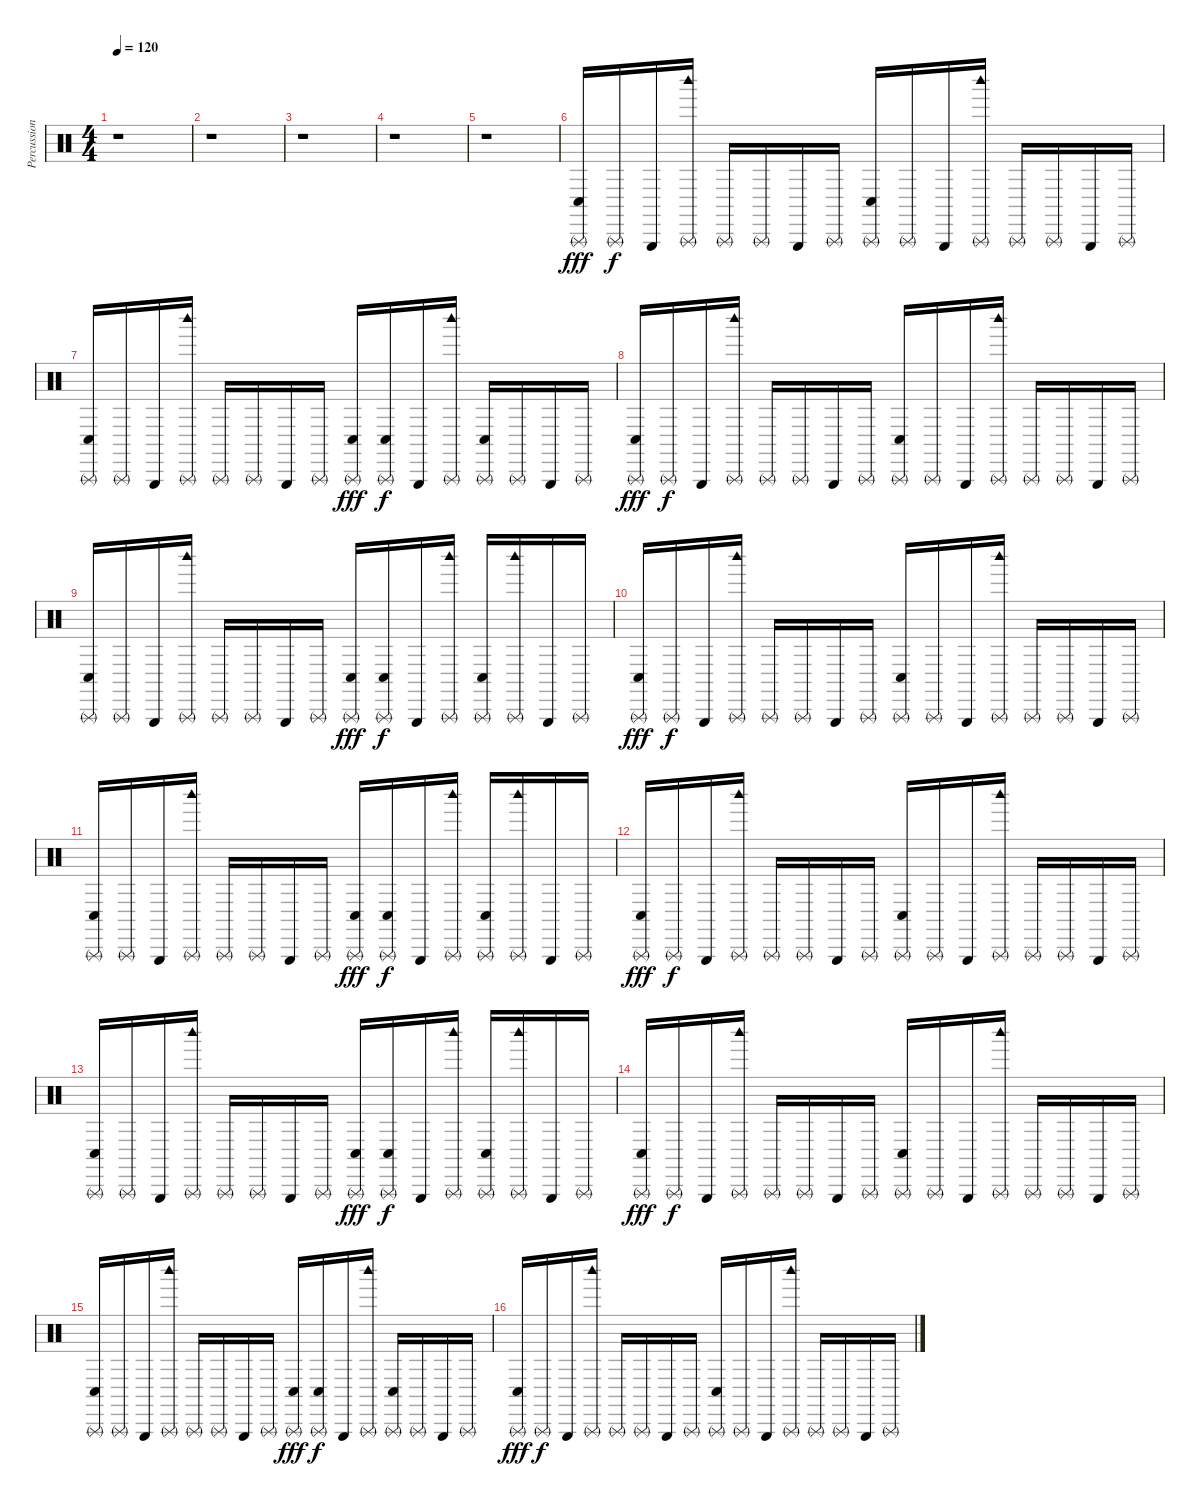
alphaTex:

\track ("Percussion" "Percussion") {instrument percussion}
\staff {score}
\articulation defaults
\ts (4 4)
\tempo 120
\clef neutral
\ks c
r.1{dy fff} |
r.1 |
r.1 |
r.1 |
r.1 |
("Conga low (hit)" "Triangle (rnute)").16 "Triangle (rnute)".16{dy f} "Triangle (hit)".16 ("Woodblock high (hit)" "Triangle (rnute)").16 "Triangle (rnute)".16 "Triangle (rnute)".16 "Triangle (hit)".16 "Triangle (rnute)".16 ("Conga low (hit)" "Triangle (rnute)").16 "Triangle (rnute)".16 "Triangle (hit)".16 ("Woodblock high (hit)" "Triangle (rnute)").16 "Triangle (rnute)".16 "Triangle (rnute)".16 "Triangle (hit)".16 "Triangle (rnute)".16 |
("Conga low (hit)" "Triangle (rnute)").16 "Triangle (rnute)".16 "Triangle (hit)".16 ("Woodblock high (hit)" "Triangle (rnute)").16 "Triangle (rnute)".16 "Triangle (rnute)".16 "Triangle (hit)".16 "Triangle (rnute)".16 ("Conga low (hit)" "Triangle (rnute)").16{dy fff} ("Conga low (hit)" "Triangle (rnute)").16{dy f} "Triangle (hit)".16 ("Woodblock high (hit)" "Triangle (rnute)").16 ("Conga low (hit)" "Triangle (rnute)").16 "Triangle (rnute)".16 "Triangle (hit)".16 "Triangle (rnute)".16 |
("Conga low (hit)" "Triangle (rnute)").16{dy fff} "Triangle (rnute)".16{dy f} "Triangle (hit)".16 ("Woodblock high (hit)" "Triangle (rnute)").16 "Triangle (rnute)".16 "Triangle (rnute)".16 "Triangle (hit)".16 "Triangle (rnute)".16 ("Conga low (hit)" "Triangle (rnute)").16 "Triangle (rnute)".16 "Triangle (hit)".16 ("Woodblock high (hit)" "Triangle (rnute)").16 "Triangle (rnute)".16 "Triangle (rnute)".16 "Triangle (hit)".16 "Triangle (rnute)".16 |
("Conga low (hit)" "Triangle (rnute)").16 "Triangle (rnute)".16 "Triangle (hit)".16 ("Woodblock high (hit)" "Triangle (rnute)").16 "Triangle (rnute)".16 "Triangle (rnute)".16 "Triangle (hit)".16 "Triangle (rnute)".16 ("Conga low (hit)" "Triangle (rnute)").16{dy fff} ("Conga low (hit)" "Triangle (rnute)").16{dy f} "Triangle (hit)".16 ("Woodblock high (hit)" "Triangle (rnute)").16 ("Conga low (hit)" "Triangle (rnute)").16 ("Woodblock high (hit)" "Triangle (rnute)").16 "Triangle (hit)".16 "Triangle (rnute)".16 |
("Conga low (hit)" "Triangle (rnute)").16{dy fff} "Triangle (rnute)".16{dy f} "Triangle (hit)".16 ("Woodblock high (hit)" "Triangle (rnute)").16 "Triangle (rnute)".16 "Triangle (rnute)".16 "Triangle (hit)".16 "Triangle (rnute)".16 ("Conga low (hit)" "Triangle (rnute)").16 "Triangle (rnute)".16 "Triangle (hit)".16 ("Woodblock high (hit)" "Triangle (rnute)").16 "Triangle (rnute)".16 "Triangle (rnute)".16 "Triangle (hit)".16 "Triangle (rnute)".16 |
("Conga low (hit)" "Triangle (rnute)").16 "Triangle (rnute)".16 "Triangle (hit)".16 ("Woodblock high (hit)" "Triangle (rnute)").16 "Triangle (rnute)".16 "Triangle (rnute)".16 "Triangle (hit)".16 "Triangle (rnute)".16 ("Conga low (hit)" "Triangle (rnute)").16{dy fff} ("Conga low (hit)" "Triangle (rnute)").16{dy f} "Triangle (hit)".16 ("Woodblock high (hit)" "Triangle (rnute)").16 ("Conga low (hit)" "Triangle (rnute)").16 ("Woodblock high (hit)" "Triangle (rnute)").16 "Triangle (hit)".16 "Triangle (rnute)".16 |
("Conga low (hit)" "Triangle (rnute)").16{dy fff} "Triangle (rnute)".16{dy f} "Triangle (hit)".16 ("Woodblock high (hit)" "Triangle (rnute)").16 "Triangle (rnute)".16 "Triangle (rnute)".16 "Triangle (hit)".16 "Triangle (rnute)".16 ("Conga low (hit)" "Triangle (rnute)").16 "Triangle (rnute)".16 "Triangle (hit)".16 ("Woodblock high (hit)" "Triangle (rnute)").16 "Triangle (rnute)".16 "Triangle (rnute)".16 "Triangle (hit)".16 "Triangle (rnute)".16 |
("Conga low (hit)" "Triangle (rnute)").16 "Triangle (rnute)".16 "Triangle (hit)".16 ("Woodblock high (hit)" "Triangle (rnute)").16 "Triangle (rnute)".16 "Triangle (rnute)".16 "Triangle (hit)".16 "Triangle (rnute)".16 ("Conga low (hit)" "Triangle (rnute)").16{dy fff} ("Conga low (hit)" "Triangle (rnute)").16{dy f} "Triangle (hit)".16 ("Woodblock high (hit)" "Triangle (rnute)").16 ("Conga low (hit)" "Triangle (rnute)").16 ("Woodblock high (hit)" "Triangle (rnute)").16 "Triangle (hit)".16 "Triangle (rnute)".16 |
("Conga low (hit)" "Triangle (rnute)").16{dy fff} "Triangle (rnute)".16{dy f} "Triangle (hit)".16 ("Woodblock high (hit)" "Triangle (rnute)").16 "Triangle (rnute)".16 "Triangle (rnute)".16 "Triangle (hit)".16 "Triangle (rnute)".16 ("Conga low (hit)" "Triangle (rnute)").16 "Triangle (rnute)".16 "Triangle (hit)".16 ("Woodblock high (hit)" "Triangle (rnute)").16 "Triangle (rnute)".16 "Triangle (rnute)".16 "Triangle (hit)".16 "Triangle (rnute)".16 |
("Conga low (hit)" "Triangle (rnute)").16 "Triangle (rnute)".16 "Triangle (hit)".16 ("Woodblock high (hit)" "Triangle (rnute)").16 "Triangle (rnute)".16 "Triangle (rnute)".16 "Triangle (hit)".16 "Triangle (rnute)".16 ("Conga low (hit)" "Triangle (rnute)").16{dy fff} ("Conga low (hit)" "Triangle (rnute)").16{dy f} "Triangle (hit)".16 ("Woodblock high (hit)" "Triangle (rnute)").16 ("Conga low (hit)" "Triangle (rnute)").16 "Triangle (rnute)".16 "Triangle (hit)".16 "Triangle (rnute)".16 |
("Conga low (hit)" "Triangle (rnute)").16{dy fff} "Triangle (rnute)".16{dy f} "Triangle (hit)".16 ("Woodblock high (hit)" "Triangle (rnute)").16 "Triangle (rnute)".16 "Triangle (rnute)".16 "Triangle (hit)".16 "Triangle (rnute)".16 ("Conga low (hit)" "Triangle (rnute)").16 "Triangle (rnute)".16 "Triangle (hit)".16 ("Woodblock high (hit)" "Triangle (rnute)").16 "Triangle (rnute)".16 "Triangle (rnute)".16 "Triangle (hit)".16 "Triangle (rnute)".16
